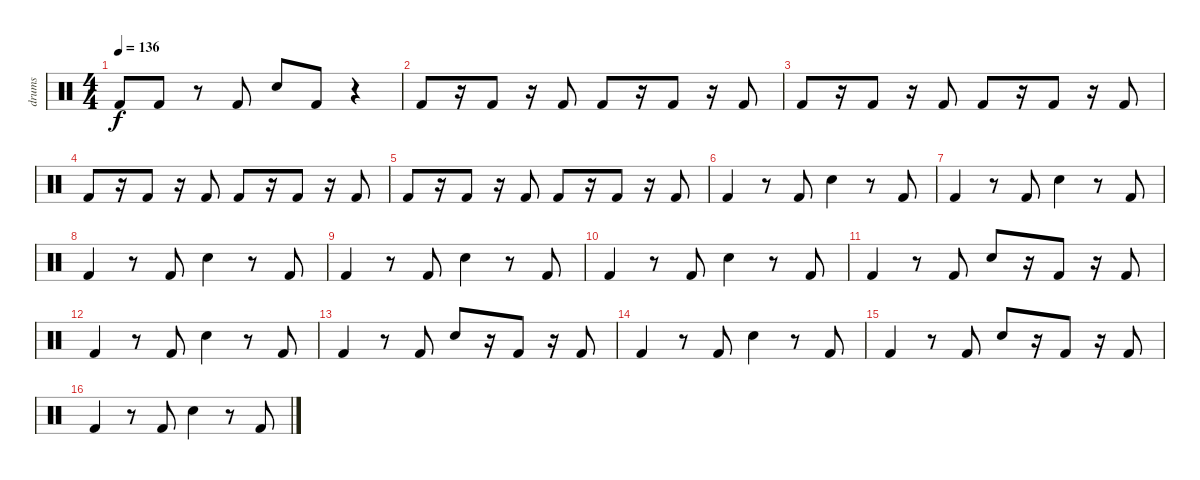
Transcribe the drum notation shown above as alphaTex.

\track ("drums" "drums") {instrument percussion}
\staff {score}
\articulation defaults
\ts (4 4)
\tempo 136
\clef neutral
\ks c "Kick (hit) 2".8{dy f} "Kick (hit) 2".8
r.8 "Kick (hit) 2".8 "Electric Snare (hit)".8 "Kick (hit) 2".8 r.4 |
"Kick (hit) 2".8 r.16 "Kick (hit) 2".8 r.16 "Kick (hit) 2".8 "Kick (hit) 2".8 r.16 "Kick (hit) 2".8 r.16 "Kick (hit) 2".8 |
"Kick (hit) 2".8 r.16 "Kick (hit) 2".8 r.16 "Kick (hit) 2".8 "Kick (hit) 2".8 r.16 "Kick (hit) 2".8 r.16 "Kick (hit) 2".8 |
"Kick (hit) 2".8 r.16 "Kick (hit) 2".8 r.16 "Kick (hit) 2".8 "Kick (hit) 2".8 r.16 "Kick (hit) 2".8 r.16 "Kick (hit) 2".8 |
"Kick (hit) 2".8 r.16 "Kick (hit) 2".8 r.16 "Kick (hit) 2".8 "Kick (hit) 2".8 r.16 "Kick (hit) 2".8 r.16 "Kick (hit) 2".8 |
"Kick (hit) 2".4 r.8 "Kick (hit) 2".8 "Electric Snare (hit)".4 r.8 "Kick (hit) 2".8 |
"Kick (hit) 2".4 r.8 "Kick (hit) 2".8 "Electric Snare (hit)".4 r.8 "Kick (hit) 2".8 |
"Kick (hit) 2".4 r.8 "Kick (hit) 2".8 "Electric Snare (hit)".4 r.8 "Kick (hit) 2".8 |
"Kick (hit) 2".4 r.8 "Kick (hit) 2".8 "Electric Snare (hit)".4 r.8 "Kick (hit) 2".8 |
"Kick (hit) 2".4 r.8 "Kick (hit) 2".8 "Electric Snare (hit)".4 r.8 "Kick (hit) 2".8 |
"Kick (hit) 2".4 r.8 "Kick (hit) 2".8 "Electric Snare (hit)".8 r.16 "Kick (hit) 2".8 r.16 "Kick (hit) 2".8 |
"Kick (hit) 2".4 r.8 "Kick (hit) 2".8 "Electric Snare (hit)".4 r.8 "Kick (hit) 2".8 |
"Kick (hit) 2".4 r.8 "Kick (hit) 2".8 "Electric Snare (hit)".8 r.16 "Kick (hit) 2".8 r.16 "Kick (hit) 2".8 |
"Kick (hit) 2".4 r.8 "Kick (hit) 2".8 "Electric Snare (hit)".4 r.8 "Kick (hit) 2".8 |
"Kick (hit) 2".4 r.8 "Kick (hit) 2".8 "Electric Snare (hit)".8 r.16 "Kick (hit) 2".8 r.16 "Kick (hit) 2".8 |
"Kick (hit) 2".4 r.8 "Kick (hit) 2".8 "Electric Snare (hit)".4 r.8 "Kick (hit) 2".8
